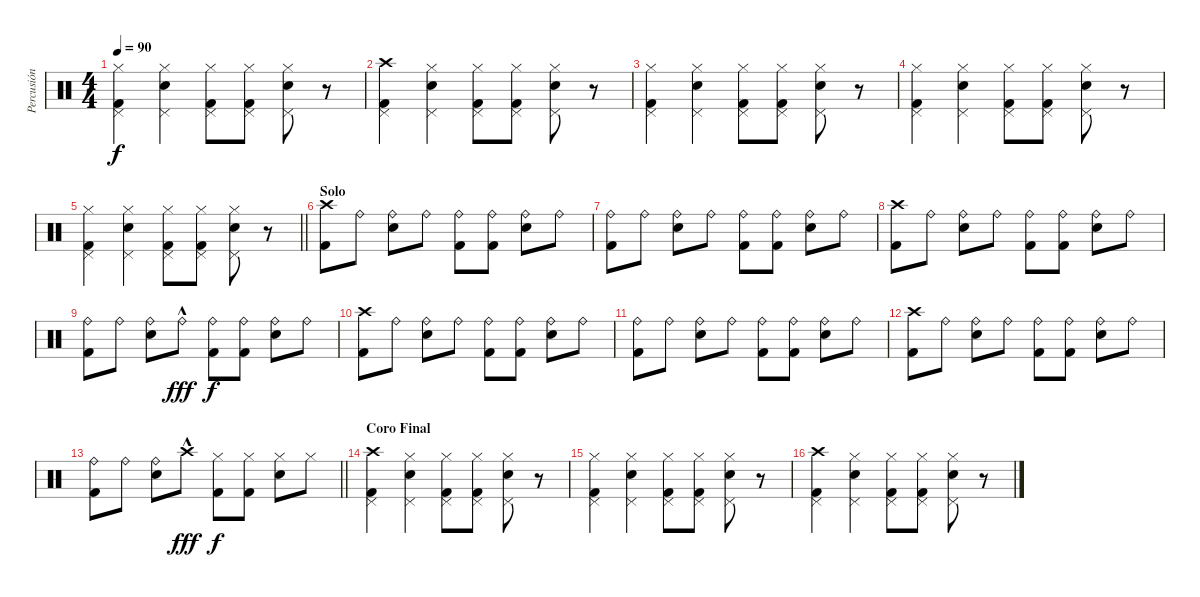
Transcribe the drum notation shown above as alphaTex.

\track ("Percusión" "Percusión") {instrument percussion}
\staff {score}
\articulation defaults
\ts (4 4)
\tempo 90
\clef neutral
\ks c
("Hi-Hat (closed)" "Kick (hit) 2" "Pedal Hi-Hat (hit)").4{dy f} ("Hi-Hat (closed)" "Snare (hit) 2" "Pedal Hi-Hat (hit)").4 ("Hi-Hat (closed)" "Kick (hit) 2" "Pedal Hi-Hat (hit)").8 ("Hi-Hat (closed)" "Kick (hit) 2" "Pedal Hi-Hat (hit)").8 ("Hi-Hat (closed)" "Snare (hit) 2" "Pedal Hi-Hat (hit)").8 r.8 |
("Crash high (hit)" "Kick (hit) 2" "Pedal Hi-Hat (hit)").4 ("Hi-Hat (closed)" "Snare (hit) 2" "Pedal Hi-Hat (hit)").4 ("Hi-Hat (closed)" "Kick (hit) 2" "Pedal Hi-Hat (hit)").8 ("Hi-Hat (closed)" "Kick (hit) 2" "Pedal Hi-Hat (hit)").8 ("Hi-Hat (closed)" "Snare (hit) 2" "Pedal Hi-Hat (hit)").8 r.8 |
("Hi-Hat (closed)" "Kick (hit) 2" "Pedal Hi-Hat (hit)").4 ("Hi-Hat (closed)" "Snare (hit) 2" "Pedal Hi-Hat (hit)").4 ("Hi-Hat (closed)" "Kick (hit) 2" "Pedal Hi-Hat (hit)").8 ("Hi-Hat (closed)" "Kick (hit) 2" "Pedal Hi-Hat (hit)").8 ("Hi-Hat (closed)" "Snare (hit) 2" "Pedal Hi-Hat (hit)").8 r.8 |
("Hi-Hat (closed)" "Kick (hit) 2" "Pedal Hi-Hat (hit)").4 ("Hi-Hat (closed)" "Snare (hit) 2" "Pedal Hi-Hat (hit)").4 ("Hi-Hat (closed)" "Kick (hit) 2" "Pedal Hi-Hat (hit)").8 ("Hi-Hat (closed)" "Kick (hit) 2" "Pedal Hi-Hat (hit)").8 ("Hi-Hat (closed)" "Snare (hit) 2" "Pedal Hi-Hat (hit)").8 r.8 |
\barLineRight lightlight
("Hi-Hat (closed)" "Kick (hit) 2" "Pedal Hi-Hat (hit)").4 ("Hi-Hat (closed)" "Snare (hit) 2" "Pedal Hi-Hat (hit)").4 ("Hi-Hat (closed)" "Kick (hit) 2" "Pedal Hi-Hat (hit)").8 ("Hi-Hat (closed)" "Kick (hit) 2" "Pedal Hi-Hat (hit)").8 ("Hi-Hat (closed)" "Snare (hit) 2" "Pedal Hi-Hat (hit)").8 r.8 |
\section ("" "Solo")
("Crash high (hit)" "Kick (hit) 2").8 "Ride (bell)".8 ("Ride (bell)" "Snare (hit) 2").8 "Ride (bell)".8 ("Ride (bell)" "Kick (hit) 2").8 ("Ride (bell)" "Kick (hit) 2").8 ("Ride (bell)" "Snare (hit) 2").8 "Ride (bell)".8 |
("Ride (bell)" "Kick (hit) 2").8 "Ride (bell)".8 ("Ride (bell)" "Snare (hit) 2").8 "Ride (bell)".8 ("Ride (bell)" "Kick (hit) 2").8 ("Ride (bell)" "Kick (hit) 2").8 ("Ride (bell)" "Snare (hit) 2").8 "Ride (bell)".8 |
("Crash high (hit)" "Kick (hit) 2").8 "Ride (bell)".8 ("Ride (bell)" "Snare (hit) 2").8 "Ride (bell)".8 ("Ride (bell)" "Kick (hit) 2").8 ("Ride (bell)" "Kick (hit) 2").8 ("Ride (bell)" "Snare (hit) 2").8 "Ride (bell)".8 |
("Ride (bell)" "Kick (hit) 2").8 "Ride (bell)".8 ("Ride (bell)" "Snare (hit) 2").8 "Ride (bell)"{hac}.8{dy fff} ("Ride (bell)" "Kick (hit) 2").8{dy f} ("Ride (bell)" "Kick (hit) 2").8 ("Ride (bell)" "Snare (hit) 2").8 "Ride (bell)".8 |
("Crash high (hit)" "Kick (hit) 2").8 "Ride (bell)".8 ("Ride (bell)" "Snare (hit) 2").8 "Ride (bell)".8 ("Ride (bell)" "Kick (hit) 2").8 ("Ride (bell)" "Kick (hit) 2").8 ("Ride (bell)" "Snare (hit) 2").8 "Ride (bell)".8 |
("Ride (bell)" "Kick (hit) 2").8 "Ride (bell)".8 ("Ride (bell)" "Snare (hit) 2").8 "Ride (bell)".8 ("Ride (bell)" "Kick (hit) 2").8 ("Ride (bell)" "Kick (hit) 2").8 ("Ride (bell)" "Snare (hit) 2").8 "Ride (bell)".8 |
("Crash high (hit)" "Kick (hit) 2").8 "Ride (bell)".8 ("Ride (bell)" "Snare (hit) 2").8 "Ride (bell)".8 ("Ride (bell)" "Kick (hit) 2").8 ("Ride (bell)" "Kick (hit) 2").8 ("Ride (bell)" "Snare (hit) 2").8 "Ride (bell)".8 |
\barLineRight lightlight
("Ride (bell)" "Kick (hit) 2").8 "Ride (bell)".8 ("Ride (bell)" "Snare (hit) 2").8 "Crash high (hit)"{hac}.8{dy fff} ("Hi-Hat (closed)" "Kick (hit) 2").8{dy f} ("Hi-Hat (closed)" "Kick (hit) 2").8 ("Hi-Hat (closed)" "Snare (hit) 2").8 "Hi-Hat (closed)".8 |
\section ("" "Coro Final")
("Crash high (hit)" "Kick (hit) 2" "Pedal Hi-Hat (hit)").4 ("Hi-Hat (closed)" "Snare (hit) 2" "Pedal Hi-Hat (hit)").4 ("Hi-Hat (closed)" "Kick (hit) 2" "Pedal Hi-Hat (hit)").8 ("Hi-Hat (closed)" "Kick (hit) 2" "Pedal Hi-Hat (hit)").8 ("Hi-Hat (closed)" "Snare (hit) 2" "Pedal Hi-Hat (hit)").8 r.8 |
("Hi-Hat (closed)" "Kick (hit) 2" "Pedal Hi-Hat (hit)").4 ("Hi-Hat (closed)" "Snare (hit) 2" "Pedal Hi-Hat (hit)").4 ("Hi-Hat (closed)" "Kick (hit) 2" "Pedal Hi-Hat (hit)").8 ("Hi-Hat (closed)" "Kick (hit) 2" "Pedal Hi-Hat (hit)").8 ("Hi-Hat (closed)" "Snare (hit) 2" "Pedal Hi-Hat (hit)").8 r.8 |
("Crash high (hit)" "Kick (hit) 2" "Pedal Hi-Hat (hit)").4 ("Hi-Hat (closed)" "Snare (hit) 2" "Pedal Hi-Hat (hit)").4 ("Hi-Hat (closed)" "Kick (hit) 2" "Pedal Hi-Hat (hit)").8 ("Hi-Hat (closed)" "Kick (hit) 2" "Pedal Hi-Hat (hit)").8 ("Hi-Hat (closed)" "Snare (hit) 2" "Pedal Hi-Hat (hit)").8 r.8
